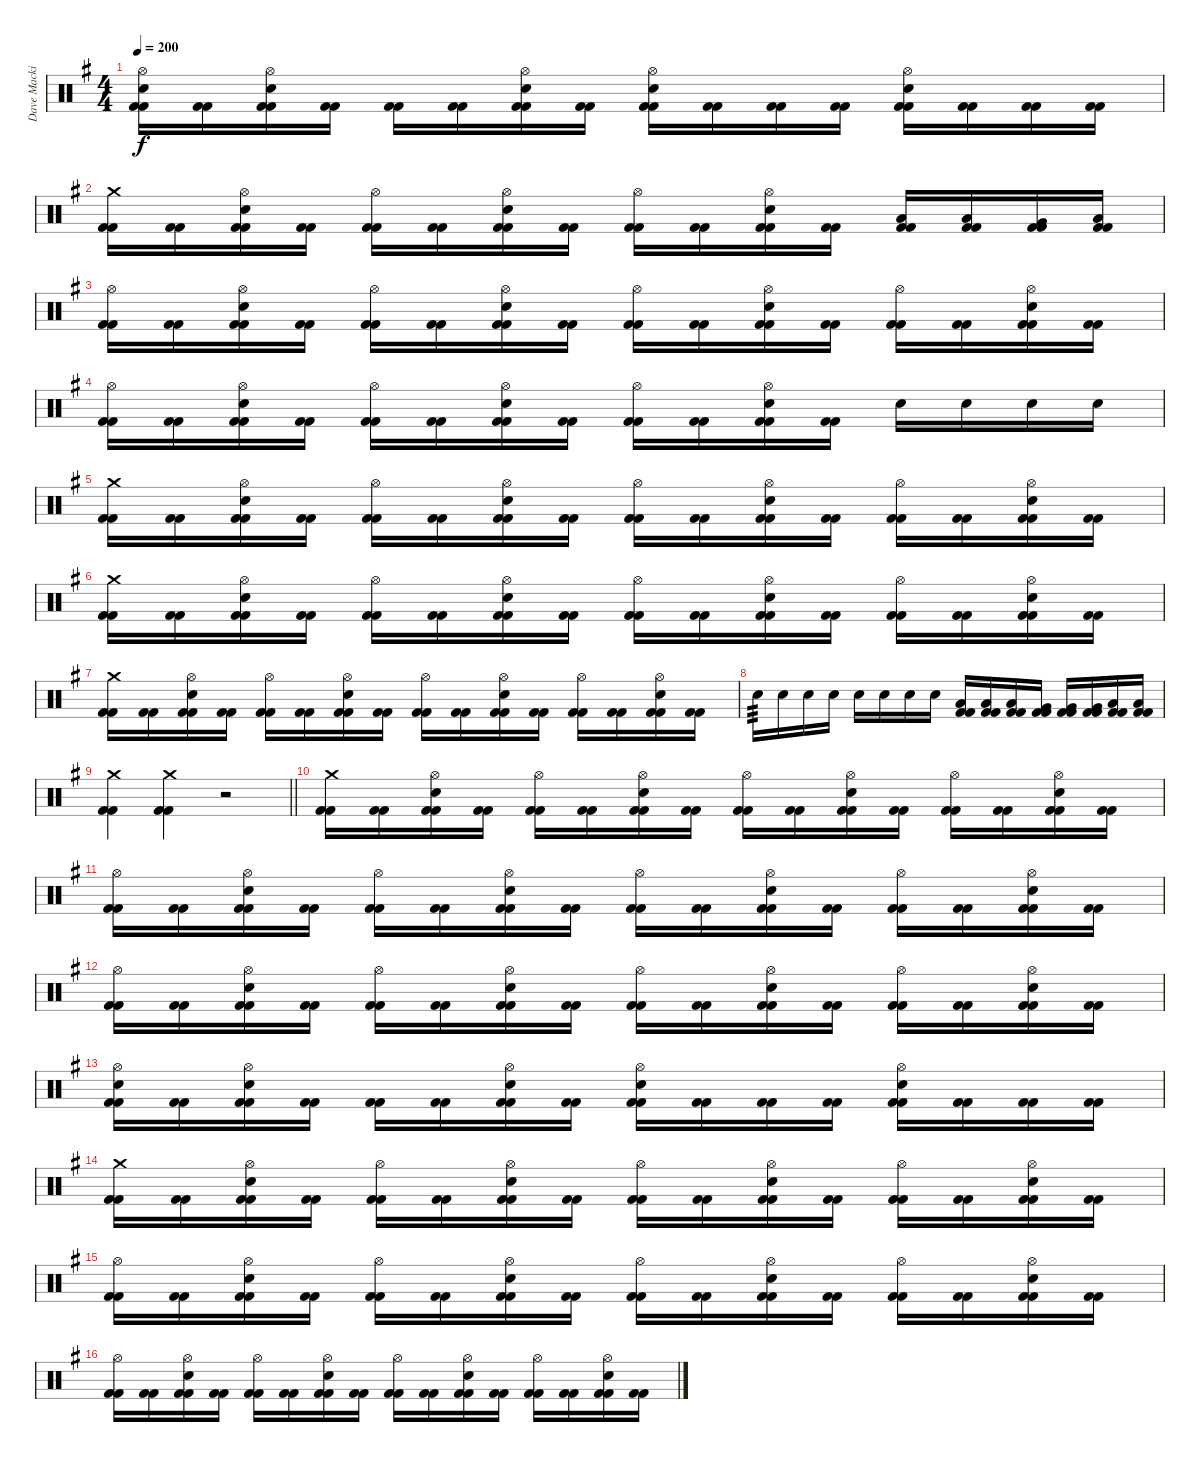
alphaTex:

\track ("Dave Mackintosh" "Dave Macki") {instrument percussion}
\staff {score}
\articulation defaults
\ts (4 4)
\tempo 200
\clef neutral
\ks g
("Hi-Hat (open)" "Electric Snare (hit)" "Kick (hit) 2" "Kick (hit) 2").16{dy f} ("Kick (hit) 2" "Kick (hit) 2").16 ("Hi-Hat (open)" "Electric Snare (hit)" "Kick (hit) 2" "Kick (hit) 2").16 ("Kick (hit) 2" "Kick (hit) 2").16 ("Kick (hit) 2" "Kick (hit) 2").16 ("Kick (hit) 2" "Kick (hit) 2").16 ("Hi-Hat (open)" "Electric Snare (hit)" "Kick (hit) 2" "Kick (hit) 2").16 ("Kick (hit) 2" "Kick (hit) 2").16 ("Hi-Hat (open)" "Electric Snare (hit)" "Kick (hit) 2" "Kick (hit) 2").16 ("Kick (hit) 2" "Kick (hit) 2").16 ("Kick (hit) 2" "Kick (hit) 2").16 ("Kick (hit) 2" "Kick (hit) 2").16 ("Hi-Hat (open)" "Electric Snare (hit)" "Kick (hit) 2" "Kick (hit) 2").16 ("Kick (hit) 2" "Kick (hit) 2").16 ("Kick (hit) 2" "Kick (hit) 2").16 ("Kick (hit) 2" "Kick (hit) 2").16 |
("Crash medium (hit)" "Kick (hit) 2" "Kick (hit) 2").16 ("Kick (hit) 2" "Kick (hit) 2").16 ("Hi-Hat (open)" "Electric Snare (hit)" "Kick (hit) 2" "Kick (hit) 2").16 ("Kick (hit) 2" "Kick (hit) 2").16 ("Hi-Hat (open)" "Kick (hit) 2" "Kick (hit) 2").16 ("Kick (hit) 2" "Kick (hit) 2").16 ("Hi-Hat (open)" "Electric Snare (hit)" "Kick (hit) 2" "Kick (hit) 2").16 ("Kick (hit) 2" "Kick (hit) 2").16 ("Hi-Hat (open)" "Kick (hit) 2" "Kick (hit) 2").16 ("Kick (hit) 2" "Kick (hit) 2").16 ("Hi-Hat (open)" "Electric Snare (hit)" "Kick (hit) 2" "Kick (hit) 2").16 ("Kick (hit) 2" "Kick (hit) 2").16 ("Low Tom (hit)" "Kick (hit) 2" "Kick (hit) 2").16 ("Low Tom (hit)" "Kick (hit) 2" "Kick (hit) 2").16 ("Very Low Tom (hit)" "Kick (hit) 2" "Kick (hit) 2").16 ("Low Floor Tom (hit)" "Kick (hit) 2" "Kick (hit) 2").16 |
("Hi-Hat (open)" "Kick (hit) 2" "Kick (hit) 2").16 ("Kick (hit) 2" "Kick (hit) 2").16 ("Hi-Hat (open)" "Electric Snare (hit)" "Kick (hit) 2" "Kick (hit) 2").16 ("Kick (hit) 2" "Kick (hit) 2").16 ("Hi-Hat (open)" "Kick (hit) 2" "Kick (hit) 2").16 ("Kick (hit) 2" "Kick (hit) 2").16 ("Hi-Hat (open)" "Electric Snare (hit)" "Kick (hit) 2" "Kick (hit) 2").16 ("Kick (hit) 2" "Kick (hit) 2").16 ("Hi-Hat (open)" "Kick (hit) 2" "Kick (hit) 2").16 ("Kick (hit) 2" "Kick (hit) 2").16 ("Hi-Hat (open)" "Electric Snare (hit)" "Kick (hit) 2" "Kick (hit) 2").16 ("Kick (hit) 2" "Kick (hit) 2").16 ("Hi-Hat (open)" "Kick (hit) 2" "Kick (hit) 2").16 ("Kick (hit) 2" "Kick (hit) 2").16 ("Hi-Hat (open)" "Electric Snare (hit)" "Kick (hit) 2" "Kick (hit) 2").16 ("Kick (hit) 2" "Kick (hit) 2").16 |
("Hi-Hat (open)" "Kick (hit) 2" "Kick (hit) 2").16 ("Kick (hit) 2" "Kick (hit) 2").16 ("Hi-Hat (open)" "Electric Snare (hit)" "Kick (hit) 2" "Kick (hit) 2").16 ("Kick (hit) 2" "Kick (hit) 2").16 ("Hi-Hat (open)" "Kick (hit) 2" "Kick (hit) 2").16 ("Kick (hit) 2" "Kick (hit) 2").16 ("Hi-Hat (open)" "Electric Snare (hit)" "Kick (hit) 2" "Kick (hit) 2").16 ("Kick (hit) 2" "Kick (hit) 2").16 ("Hi-Hat (open)" "Kick (hit) 2" "Kick (hit) 2").16 ("Kick (hit) 2" "Kick (hit) 2").16 ("Hi-Hat (open)" "Electric Snare (hit)" "Kick (hit) 2" "Kick (hit) 2").16 ("Kick (hit) 2" "Kick (hit) 2").16 "Electric Snare (hit)".16 "Electric Snare (hit)".16 "Electric Snare (hit)".16 "Electric Snare (hit)".16 |
("Crash medium (hit)" "Kick (hit) 2" "Kick (hit) 2").16 ("Kick (hit) 2" "Kick (hit) 2").16 ("Hi-Hat (open)" "Electric Snare (hit)" "Kick (hit) 2" "Kick (hit) 2").16 ("Kick (hit) 2" "Kick (hit) 2").16 ("Hi-Hat (open)" "Kick (hit) 2" "Kick (hit) 2").16 ("Kick (hit) 2" "Kick (hit) 2").16 ("Hi-Hat (open)" "Electric Snare (hit)" "Kick (hit) 2" "Kick (hit) 2").16 ("Kick (hit) 2" "Kick (hit) 2").16 ("Hi-Hat (open)" "Kick (hit) 2" "Kick (hit) 2").16 ("Kick (hit) 2" "Kick (hit) 2").16 ("Hi-Hat (open)" "Electric Snare (hit)" "Kick (hit) 2" "Kick (hit) 2").16 ("Kick (hit) 2" "Kick (hit) 2").16 ("Hi-Hat (open)" "Kick (hit) 2" "Kick (hit) 2").16 ("Kick (hit) 2" "Kick (hit) 2").16 ("Hi-Hat (open)" "Electric Snare (hit)" "Kick (hit) 2" "Kick (hit) 2").16 ("Kick (hit) 2" "Kick (hit) 2").16 |
("Crash medium (hit)" "Kick (hit) 2" "Kick (hit) 2").16 ("Kick (hit) 2" "Kick (hit) 2").16 ("Hi-Hat (open)" "Electric Snare (hit)" "Kick (hit) 2" "Kick (hit) 2").16 ("Kick (hit) 2" "Kick (hit) 2").16 ("Hi-Hat (open)" "Kick (hit) 2" "Kick (hit) 2").16 ("Kick (hit) 2" "Kick (hit) 2").16 ("Hi-Hat (open)" "Electric Snare (hit)" "Kick (hit) 2" "Kick (hit) 2").16 ("Kick (hit) 2" "Kick (hit) 2").16 ("Hi-Hat (open)" "Kick (hit) 2" "Kick (hit) 2").16 ("Kick (hit) 2" "Kick (hit) 2").16 ("Hi-Hat (open)" "Electric Snare (hit)" "Kick (hit) 2" "Kick (hit) 2").16 ("Kick (hit) 2" "Kick (hit) 2").16 ("Hi-Hat (open)" "Kick (hit) 2" "Kick (hit) 2").16 ("Kick (hit) 2" "Kick (hit) 2").16 ("Hi-Hat (open)" "Electric Snare (hit)" "Kick (hit) 2" "Kick (hit) 2").16 ("Kick (hit) 2" "Kick (hit) 2").16 |
("Crash medium (hit)" "Kick (hit) 2" "Kick (hit) 2").16 ("Kick (hit) 2" "Kick (hit) 2").16 ("Hi-Hat (open)" "Electric Snare (hit)" "Kick (hit) 2" "Kick (hit) 2").16 ("Kick (hit) 2" "Kick (hit) 2").16 ("Hi-Hat (open)" "Kick (hit) 2" "Kick (hit) 2").16 ("Kick (hit) 2" "Kick (hit) 2").16 ("Hi-Hat (open)" "Electric Snare (hit)" "Kick (hit) 2" "Kick (hit) 2").16 ("Kick (hit) 2" "Kick (hit) 2").16 ("Hi-Hat (open)" "Kick (hit) 2" "Kick (hit) 2").16 ("Kick (hit) 2" "Kick (hit) 2").16 ("Hi-Hat (open)" "Electric Snare (hit)" "Kick (hit) 2" "Kick (hit) 2").16 ("Kick (hit) 2" "Kick (hit) 2").16 ("Hi-Hat (open)" "Kick (hit) 2" "Kick (hit) 2").16 ("Kick (hit) 2" "Kick (hit) 2").16 ("Hi-Hat (open)" "Electric Snare (hit)" "Kick (hit) 2" "Kick (hit) 2").16 ("Kick (hit) 2" "Kick (hit) 2").16 |
"Electric Snare (hit)".16{tp 3} "Electric Snare (hit)".16 "Electric Snare (hit)".16 "Electric Snare (hit)".16 "Electric Snare (hit)".16 "Electric Snare (hit)".16 "Electric Snare (hit)".16 "Electric Snare (hit)".16 ("Low Tom (hit)" "Kick (hit) 2" "Kick (hit) 2").16 ("Low Tom (hit)" "Kick (hit) 2" "Kick (hit) 2").16 ("Low Tom (hit)" "Kick (hit) 2" "Kick (hit) 2").16 ("Very Low Tom (hit)" "Kick (hit) 2" "Kick (hit) 2").16 ("Very Low Tom (hit)" "Kick (hit) 2" "Kick (hit) 2").16 ("Very Low Tom (hit)" "Kick (hit) 2" "Kick (hit) 2").16 ("Low Floor Tom (hit)" "Kick (hit) 2" "Kick (hit) 2").16 ("Low Floor Tom (hit)" "Kick (hit) 2" "Kick (hit) 2").16 |
\barLineRight lightlight
("Crash medium (hit)" "Kick (hit) 2" "Kick (hit) 2").4 ("Crash medium (hit)" "Kick (hit) 2" "Kick (hit) 2").4 r.2 |
("Crash medium (hit)" "Kick (hit) 2" "Kick (hit) 2").16 ("Kick (hit) 2" "Kick (hit) 2").16 ("Hi-Hat (open)" "Electric Snare (hit)" "Kick (hit) 2" "Kick (hit) 2").16 ("Kick (hit) 2" "Kick (hit) 2").16 ("Hi-Hat (open)" "Kick (hit) 2" "Kick (hit) 2").16 ("Kick (hit) 2" "Kick (hit) 2").16 ("Hi-Hat (open)" "Electric Snare (hit)" "Kick (hit) 2" "Kick (hit) 2").16 ("Kick (hit) 2" "Kick (hit) 2").16 ("Hi-Hat (open)" "Kick (hit) 2" "Kick (hit) 2").16 ("Kick (hit) 2" "Kick (hit) 2").16 ("Hi-Hat (open)" "Electric Snare (hit)" "Kick (hit) 2" "Kick (hit) 2").16 ("Kick (hit) 2" "Kick (hit) 2").16 ("Hi-Hat (open)" "Kick (hit) 2" "Kick (hit) 2").16 ("Kick (hit) 2" "Kick (hit) 2").16 ("Hi-Hat (open)" "Electric Snare (hit)" "Kick (hit) 2" "Kick (hit) 2").16 ("Kick (hit) 2" "Kick (hit) 2").16 |
("Hi-Hat (open)" "Kick (hit) 2" "Kick (hit) 2").16 ("Kick (hit) 2" "Kick (hit) 2").16 ("Hi-Hat (open)" "Electric Snare (hit)" "Kick (hit) 2" "Kick (hit) 2").16 ("Kick (hit) 2" "Kick (hit) 2").16 ("Hi-Hat (open)" "Kick (hit) 2" "Kick (hit) 2").16 ("Kick (hit) 2" "Kick (hit) 2").16 ("Hi-Hat (open)" "Electric Snare (hit)" "Kick (hit) 2" "Kick (hit) 2").16 ("Kick (hit) 2" "Kick (hit) 2").16 ("Hi-Hat (open)" "Kick (hit) 2" "Kick (hit) 2").16 ("Kick (hit) 2" "Kick (hit) 2").16 ("Hi-Hat (open)" "Electric Snare (hit)" "Kick (hit) 2" "Kick (hit) 2").16 ("Kick (hit) 2" "Kick (hit) 2").16 ("Hi-Hat (open)" "Kick (hit) 2" "Kick (hit) 2").16 ("Kick (hit) 2" "Kick (hit) 2").16 ("Hi-Hat (open)" "Electric Snare (hit)" "Kick (hit) 2" "Kick (hit) 2").16 ("Kick (hit) 2" "Kick (hit) 2").16 |
("Hi-Hat (open)" "Kick (hit) 2" "Kick (hit) 2").16 ("Kick (hit) 2" "Kick (hit) 2").16 ("Hi-Hat (open)" "Electric Snare (hit)" "Kick (hit) 2" "Kick (hit) 2").16 ("Kick (hit) 2" "Kick (hit) 2").16 ("Hi-Hat (open)" "Kick (hit) 2" "Kick (hit) 2").16 ("Kick (hit) 2" "Kick (hit) 2").16 ("Hi-Hat (open)" "Electric Snare (hit)" "Kick (hit) 2" "Kick (hit) 2").16 ("Kick (hit) 2" "Kick (hit) 2").16 ("Hi-Hat (open)" "Kick (hit) 2" "Kick (hit) 2").16 ("Kick (hit) 2" "Kick (hit) 2").16 ("Hi-Hat (open)" "Electric Snare (hit)" "Kick (hit) 2" "Kick (hit) 2").16 ("Kick (hit) 2" "Kick (hit) 2").16 ("Hi-Hat (open)" "Kick (hit) 2" "Kick (hit) 2").16 ("Kick (hit) 2" "Kick (hit) 2").16 ("Hi-Hat (open)" "Electric Snare (hit)" "Kick (hit) 2" "Kick (hit) 2").16 ("Kick (hit) 2" "Kick (hit) 2").16 |
("Hi-Hat (open)" "Electric Snare (hit)" "Kick (hit) 2" "Kick (hit) 2").16 ("Kick (hit) 2" "Kick (hit) 2").16 ("Hi-Hat (open)" "Electric Snare (hit)" "Kick (hit) 2" "Kick (hit) 2").16 ("Kick (hit) 2" "Kick (hit) 2").16 ("Kick (hit) 2" "Kick (hit) 2").16 ("Kick (hit) 2" "Kick (hit) 2").16 ("Hi-Hat (open)" "Electric Snare (hit)" "Kick (hit) 2" "Kick (hit) 2").16 ("Kick (hit) 2" "Kick (hit) 2").16 ("Hi-Hat (open)" "Electric Snare (hit)" "Kick (hit) 2" "Kick (hit) 2").16 ("Kick (hit) 2" "Kick (hit) 2").16 ("Kick (hit) 2" "Kick (hit) 2").16 ("Kick (hit) 2" "Kick (hit) 2").16 ("Hi-Hat (open)" "Electric Snare (hit)" "Kick (hit) 2" "Kick (hit) 2").16 ("Kick (hit) 2" "Kick (hit) 2").16 ("Kick (hit) 2" "Kick (hit) 2").16 ("Kick (hit) 2" "Kick (hit) 2").16 |
("Crash medium (hit)" "Kick (hit) 2" "Kick (hit) 2").16 ("Kick (hit) 2" "Kick (hit) 2").16 ("Hi-Hat (open)" "Electric Snare (hit)" "Kick (hit) 2" "Kick (hit) 2").16 ("Kick (hit) 2" "Kick (hit) 2").16 ("Hi-Hat (open)" "Kick (hit) 2" "Kick (hit) 2").16 ("Kick (hit) 2" "Kick (hit) 2").16 ("Hi-Hat (open)" "Electric Snare (hit)" "Kick (hit) 2" "Kick (hit) 2").16 ("Kick (hit) 2" "Kick (hit) 2").16 ("Hi-Hat (open)" "Kick (hit) 2" "Kick (hit) 2").16 ("Kick (hit) 2" "Kick (hit) 2").16 ("Hi-Hat (open)" "Electric Snare (hit)" "Kick (hit) 2" "Kick (hit) 2").16 ("Kick (hit) 2" "Kick (hit) 2").16 ("Hi-Hat (open)" "Kick (hit) 2" "Kick (hit) 2").16 ("Kick (hit) 2" "Kick (hit) 2").16 ("Hi-Hat (open)" "Electric Snare (hit)" "Kick (hit) 2" "Kick (hit) 2").16 ("Kick (hit) 2" "Kick (hit) 2").16 |
("Hi-Hat (open)" "Kick (hit) 2" "Kick (hit) 2").16 ("Kick (hit) 2" "Kick (hit) 2").16 ("Hi-Hat (open)" "Electric Snare (hit)" "Kick (hit) 2" "Kick (hit) 2").16 ("Kick (hit) 2" "Kick (hit) 2").16 ("Hi-Hat (open)" "Kick (hit) 2" "Kick (hit) 2").16 ("Kick (hit) 2" "Kick (hit) 2").16 ("Hi-Hat (open)" "Electric Snare (hit)" "Kick (hit) 2" "Kick (hit) 2").16 ("Kick (hit) 2" "Kick (hit) 2").16 ("Hi-Hat (open)" "Kick (hit) 2" "Kick (hit) 2").16 ("Kick (hit) 2" "Kick (hit) 2").16 ("Hi-Hat (open)" "Electric Snare (hit)" "Kick (hit) 2" "Kick (hit) 2").16 ("Kick (hit) 2" "Kick (hit) 2").16 ("Hi-Hat (open)" "Kick (hit) 2" "Kick (hit) 2").16 ("Kick (hit) 2" "Kick (hit) 2").16 ("Hi-Hat (open)" "Electric Snare (hit)" "Kick (hit) 2" "Kick (hit) 2").16 ("Kick (hit) 2" "Kick (hit) 2").16 |
("Hi-Hat (open)" "Kick (hit) 2" "Kick (hit) 2").16 ("Kick (hit) 2" "Kick (hit) 2").16 ("Hi-Hat (open)" "Electric Snare (hit)" "Kick (hit) 2" "Kick (hit) 2").16 ("Kick (hit) 2" "Kick (hit) 2").16 ("Hi-Hat (open)" "Kick (hit) 2" "Kick (hit) 2").16 ("Kick (hit) 2" "Kick (hit) 2").16 ("Hi-Hat (open)" "Electric Snare (hit)" "Kick (hit) 2" "Kick (hit) 2").16 ("Kick (hit) 2" "Kick (hit) 2").16 ("Hi-Hat (open)" "Kick (hit) 2" "Kick (hit) 2").16 ("Kick (hit) 2" "Kick (hit) 2").16 ("Hi-Hat (open)" "Electric Snare (hit)" "Kick (hit) 2" "Kick (hit) 2").16 ("Kick (hit) 2" "Kick (hit) 2").16 ("Hi-Hat (open)" "Kick (hit) 2" "Kick (hit) 2").16 ("Kick (hit) 2" "Kick (hit) 2").16 ("Hi-Hat (open)" "Electric Snare (hit)" "Kick (hit) 2" "Kick (hit) 2").16 ("Kick (hit) 2" "Kick (hit) 2").16
